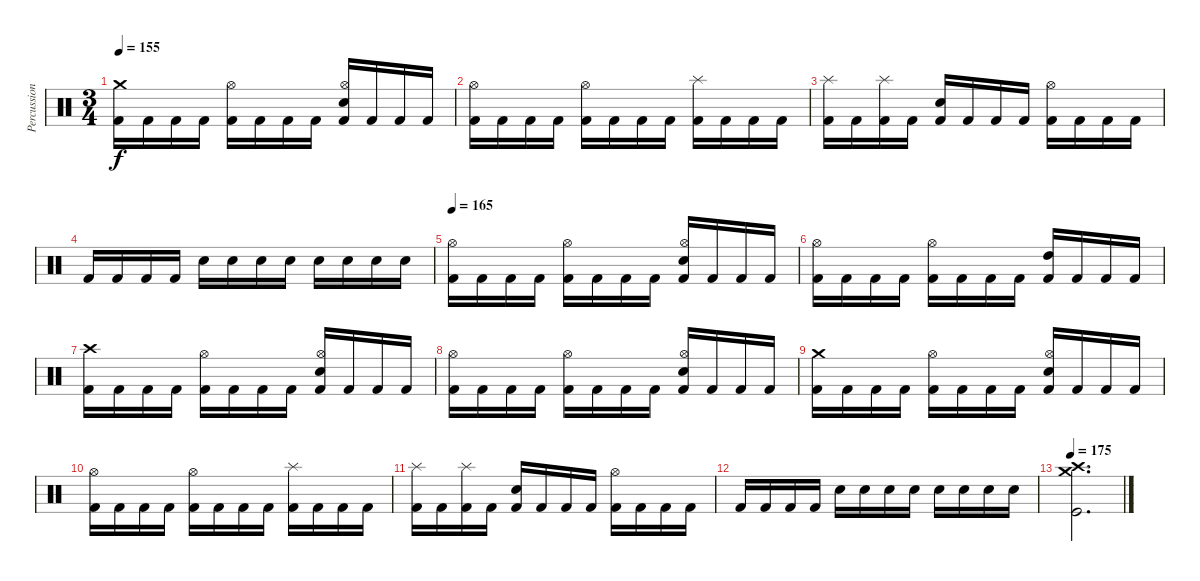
\track ("Percussion" "Percussion") {instrument percussion}
\staff {score}
\articulation defaults
\ts (3 4)
\tempo 155
\clef neutral
\ks c
("Crash medium (hit)" "Kick (hit) 2").16{dy f} "Kick (hit) 2".16 "Kick (hit) 2".16 "Kick (hit) 2".16 ("Hi-Hat (open)" "Kick (hit) 2").16 "Kick (hit) 2".16 "Kick (hit) 2".16 "Kick (hit) 2".16 ("Hi-Hat (open)" "Snare (hit) 2" "Kick (hit) 2").16 "Kick (hit) 2".16 "Kick (hit) 2".16 "Kick (hit) 2".16 |
("Hi-Hat (open)" "Kick (hit) 2").16 "Kick (hit) 2".16 "Kick (hit) 2".16 "Kick (hit) 2".16 ("Hi-Hat (open)" "Kick (hit) 2").16 "Kick (hit) 2".16 "Kick (hit) 2".16 "Kick (hit) 2".16 ("Splash (hit)" "Kick (hit) 2").16 "Kick (hit) 2".16 "Kick (hit) 2".16 "Kick (hit) 2".16 |
("Splash (hit)" "Kick (hit) 2").16 "Kick (hit) 2".16 ("Splash (hit)" "Kick (hit) 2").16 "Kick (hit) 2".16 ("Snare (hit) 2" "Kick (hit) 2").16 "Kick (hit) 2".16 "Kick (hit) 2".16 "Kick (hit) 2".16 ("Hi-Hat (open)" "Kick (hit) 2").16 "Kick (hit) 2".16 "Kick (hit) 2".16 "Kick (hit) 2".16 |
"Kick (hit) 2".16 "Kick (hit) 2".16 "Kick (hit) 2".16 "Kick (hit) 2".16 "Snare (hit) 2".16 "Snare (hit) 2".16 "Snare (hit) 2".16 "Snare (hit) 2".16 "Snare (hit) 2".16 "Snare (hit) 2".16 "Snare (hit) 2".16 "Snare (hit) 2".16 |
\tempo 165
("Hi-Hat (open)" "Kick (hit) 2").16 "Kick (hit) 2".16 "Kick (hit) 2".16 "Kick (hit) 2".16 ("Hi-Hat (open)" "Kick (hit) 2").16 "Kick (hit) 2".16 "Kick (hit) 2".16 "Kick (hit) 2".16 ("Hi-Hat (open)" "Snare (hit) 2" "Kick (hit) 2").16 "Kick (hit) 2".16 "Kick (hit) 2".16 "Kick (hit) 2".16 |
("Hi-Hat (open)" "Kick (hit) 2").16 "Kick (hit) 2".16 "Kick (hit) 2".16 "Kick (hit) 2".16 ("Hi-Hat (open)" "Kick (hit) 2").16 "Kick (hit) 2".16 "Kick (hit) 2".16 "Kick (hit) 2".16 ("High Tom (hit)" "Kick (hit) 2").16 "Kick (hit) 2".16 "Kick (hit) 2".16 "Kick (hit) 2".16 |
("Crash high (hit)" "Kick (hit) 2").16 "Kick (hit) 2".16 "Kick (hit) 2".16 "Kick (hit) 2".16 ("Hi-Hat (open)" "Kick (hit) 2").16 "Kick (hit) 2".16 "Kick (hit) 2".16 "Kick (hit) 2".16 ("Hi-Hat (open)" "Snare (hit) 2" "Kick (hit) 2").16 "Kick (hit) 2".16 "Kick (hit) 2".16 "Kick (hit) 2".16 |
("Hi-Hat (open)" "Kick (hit) 2").16 "Kick (hit) 2".16 "Kick (hit) 2".16 "Kick (hit) 2".16 ("Hi-Hat (open)" "Kick (hit) 2").16 "Kick (hit) 2".16 "Kick (hit) 2".16 "Kick (hit) 2".16 ("Hi-Hat (open)" "Snare (hit) 2" "Kick (hit) 2").16 "Kick (hit) 2".16 "Kick (hit) 2".16 "Kick (hit) 2".16 |
("Crash medium (hit)" "Kick (hit) 2").16 "Kick (hit) 2".16 "Kick (hit) 2".16 "Kick (hit) 2".16 ("Hi-Hat (open)" "Kick (hit) 2").16 "Kick (hit) 2".16 "Kick (hit) 2".16 "Kick (hit) 2".16 ("Hi-Hat (open)" "Snare (hit) 2" "Kick (hit) 2").16 "Kick (hit) 2".16 "Kick (hit) 2".16 "Kick (hit) 2".16 |
("Hi-Hat (open)" "Kick (hit) 2").16 "Kick (hit) 2".16 "Kick (hit) 2".16 "Kick (hit) 2".16 ("Hi-Hat (open)" "Kick (hit) 2").16 "Kick (hit) 2".16 "Kick (hit) 2".16 "Kick (hit) 2".16 ("Splash (hit)" "Kick (hit) 2").16 "Kick (hit) 2".16 "Kick (hit) 2".16 "Kick (hit) 2".16 |
("Splash (hit)" "Kick (hit) 2").16 "Kick (hit) 2".16 ("Splash (hit)" "Kick (hit) 2").16 "Kick (hit) 2".16 ("Snare (hit) 2" "Kick (hit) 2").16 "Kick (hit) 2".16 "Kick (hit) 2".16 "Kick (hit) 2".16 ("Hi-Hat (open)" "Kick (hit) 2").16 "Kick (hit) 2".16 "Kick (hit) 2".16 "Kick (hit) 2".16 |
"Kick (hit) 2".16 "Kick (hit) 2".16 "Kick (hit) 2".16 "Kick (hit) 2".16 "Snare (hit) 2".16 "Snare (hit) 2".16 "Snare (hit) 2".16 "Snare (hit) 2".16 "Snare (hit) 2".16 "Snare (hit) 2".16 "Snare (hit) 2".16 "Snare (hit) 2".16 |
\tempo 175
("Crash medium (hit)" "Crash high (hit)" "Kick (hit)").2{d}
